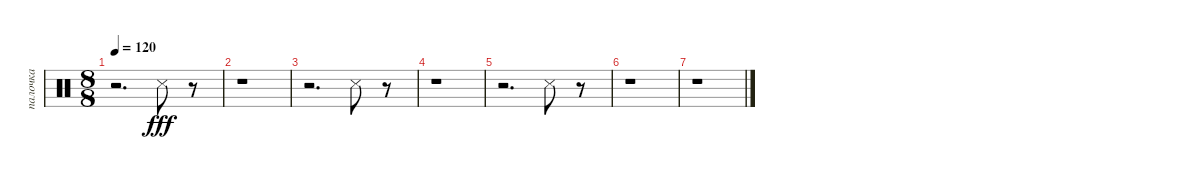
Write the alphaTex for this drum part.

\track ("палочка" "палочка") {instrument percussion}
\staff {score}
\articulation defaults
\ts (8 8)
\tempo 120
\clef neutral
\ks c
r.2{d dy fff} "Snare (side stick) 3".8{volume 9} r.8 |
r.1 |
r.2{d} "Snare (side stick) 3".8{volume 4} r.8 |
r.1 |
r.2{d} "Snare (side stick) 3".8{volume 2} r.8 |
r.1 |
r.1
